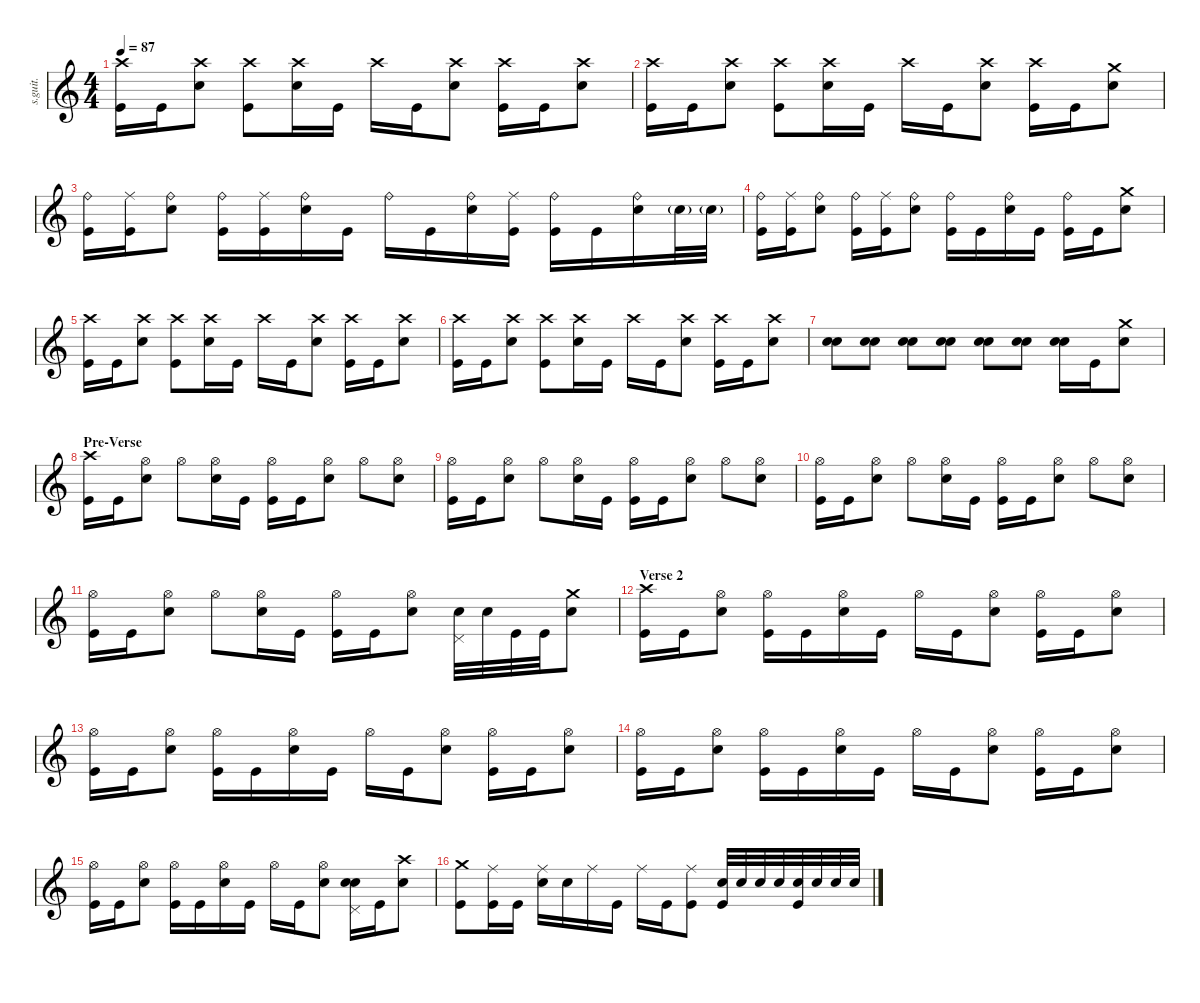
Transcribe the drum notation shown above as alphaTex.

\defaultSystemsLayout 4
\hideDynamics
\bracketExtendMode nobrackets
\track ("Taylor Hawkins (Drums)" "s.guit.") {instrument percussion}
\staff {score}
\articulation defaults
\ts (4 4)
\tempo 87
\clef g2
\ks c
("Crash high (hit)" "Kick (hit)").16{lyrics (0 "") lyrics (1 "") lyrics (2 "") lyrics (3 "") lyrics (4 "") dy f} "Kick (hit)".16{lyrics (0 "") lyrics (1 "") lyrics (2 "") lyrics (3 "") lyrics (4 "")} ("Crash high (hit)" "Snare (hit) 2").8{lyrics (0 "") lyrics (1 "") lyrics (2 "") lyrics (3 "") lyrics (4 "")} ("Crash high (hit)" "Kick (hit)").8{lyrics (0 "") lyrics (1 "") lyrics (2 "") lyrics (3 "") lyrics (4 "")} ("Crash high (hit)" "Snare (hit) 2").16{lyrics (0 "") lyrics (1 "") lyrics (2 "") lyrics (3 "") lyrics (4 "")} "Kick (hit)".16{lyrics (0 "") lyrics (1 "") lyrics (2 "") lyrics (3 "") lyrics (4 "")} "Crash high (hit)".16{lyrics (0 "") lyrics (1 "") lyrics (2 "") lyrics (3 "") lyrics (4 "")} "Kick (hit)".16{lyrics (0 "") lyrics (1 "") lyrics (2 "") lyrics (3 "") lyrics (4 "")} ("Crash high (hit)" "Snare (hit) 2").8{lyrics (0 "") lyrics (1 "") lyrics (2 "") lyrics (3 "") lyrics (4 "")} ("Crash high (hit)" "Kick (hit)").16{lyrics (0 "") lyrics (1 "") lyrics (2 "") lyrics (3 "") lyrics (4 "")} "Kick (hit)".16{lyrics (0 "") lyrics (1 "") lyrics (2 "") lyrics (3 "") lyrics (4 "")} ("Crash high (hit)" "Snare (hit) 2").8{lyrics (0 "") lyrics (1 "") lyrics (2 "") lyrics (3 "") lyrics (4 "")} |
("Crash high (hit)" "Kick (hit)").16{lyrics (0 "") lyrics (1 "") lyrics (2 "") lyrics (3 "") lyrics (4 "")} "Kick (hit)".16{lyrics (0 "") lyrics (1 "") lyrics (2 "") lyrics (3 "") lyrics (4 "")} ("Crash high (hit)" "Snare (hit) 2").8{lyrics (0 "") lyrics (1 "") lyrics (2 "") lyrics (3 "") lyrics (4 "")} ("Crash high (hit)" "Kick (hit)").8{lyrics (0 "") lyrics (1 "") lyrics (2 "") lyrics (3 "") lyrics (4 "")} ("Crash high (hit)" "Snare (hit) 2").16{lyrics (0 "") lyrics (1 "") lyrics (2 "") lyrics (3 "") lyrics (4 "")} "Kick (hit)".16{lyrics (0 "") lyrics (1 "") lyrics (2 "") lyrics (3 "") lyrics (4 "")} "Crash high (hit)".16{lyrics (0 "") lyrics (1 "") lyrics (2 "") lyrics (3 "") lyrics (4 "")} "Kick (hit)".16{lyrics (0 "") lyrics (1 "") lyrics (2 "") lyrics (3 "") lyrics (4 "")} ("Crash high (hit)" "Snare (hit) 2").8{lyrics (0 "") lyrics (1 "") lyrics (2 "") lyrics (3 "") lyrics (4 "")} ("Crash high (hit)" "Kick (hit)").16{lyrics (0 "") lyrics (1 "") lyrics (2 "") lyrics (3 "") lyrics (4 "")} "Kick (hit)".16{lyrics (0 "") lyrics (1 "") lyrics (2 "") lyrics (3 "") lyrics (4 "")} ("Crash medium (hit)" "Snare (hit) 2").8{lyrics (0 "") lyrics (1 "") lyrics (2 "") lyrics (3 "") lyrics (4 "")} |
("Ride (bell)" "Kick (hit)").16{lyrics (0 "") lyrics (1 "") lyrics (2 "") lyrics (3 "") lyrics (4 "")} ("Ride (middle)" "Kick (hit)").16{lyrics (0 "") lyrics (1 "") lyrics (2 "") lyrics (3 "") lyrics (4 "")} ("Ride (bell)" "Snare (hit) 2").8{lyrics (0 "") lyrics (1 "") lyrics (2 "") lyrics (3 "") lyrics (4 "")} ("Ride (bell)" "Kick (hit)").16{lyrics (0 "") lyrics (1 "") lyrics (2 "") lyrics (3 "") lyrics (4 "")} ("Ride (middle)" "Kick (hit)").16{lyrics (0 "") lyrics (1 "") lyrics (2 "") lyrics (3 "") lyrics (4 "")} ("Ride (bell)" "Snare (hit) 2").16{lyrics (0 "") lyrics (1 "") lyrics (2 "") lyrics (3 "") lyrics (4 "")} "Kick (hit)".16{lyrics (0 "") lyrics (1 "") lyrics (2 "") lyrics (3 "") lyrics (4 "")} "Ride (bell)".16{lyrics (0 "") lyrics (1 "") lyrics (2 "") lyrics (3 "") lyrics (4 "")} "Kick (hit)".16{lyrics (0 "") lyrics (1 "") lyrics (2 "") lyrics (3 "") lyrics (4 "")} ("Ride (bell)" "Snare (hit) 2").16{lyrics (0 "") lyrics (1 "") lyrics (2 "") lyrics (3 "") lyrics (4 "")} ("Ride (middle)" "Kick (hit)").16{lyrics (0 "") lyrics (1 "") lyrics (2 "") lyrics (3 "") lyrics (4 "")} ("Ride (bell)" "Kick (hit)").16{lyrics (0 "") lyrics (1 "") lyrics (2 "") lyrics (3 "") lyrics (4 "")} "Kick (hit)".16{lyrics (0 "") lyrics (1 "") lyrics (2 "") lyrics (3 "") lyrics (4 "")} ("Ride (bell)" "Snare (hit) 2").16{lyrics (0 "") lyrics (1 "") lyrics (2 "") lyrics (3 "") lyrics (4 "")} "Snare (hit) 2"{g}.32{lyrics (0 "") lyrics (1 "") lyrics (2 "") lyrics (3 "") lyrics (4 "") dy pp} "Snare (hit) 2"{g}.32{lyrics (0 "") lyrics (1 "") lyrics (2 "") lyrics (3 "") lyrics (4 "")} |
("Ride (bell)" "Kick (hit)").16{lyrics (0 "") lyrics (1 "") lyrics (2 "") lyrics (3 "") lyrics (4 "") dy f} ("Ride (middle)" "Kick (hit)").16{lyrics (0 "") lyrics (1 "") lyrics (2 "") lyrics (3 "") lyrics (4 "")} ("Ride (bell)" "Snare (hit) 2").8{lyrics (0 "") lyrics (1 "") lyrics (2 "") lyrics (3 "") lyrics (4 "")} ("Ride (bell)" "Kick (hit)").16{lyrics (0 "") lyrics (1 "") lyrics (2 "") lyrics (3 "") lyrics (4 "")} ("Ride (middle)" "Kick (hit)").16{lyrics (0 "") lyrics (1 "") lyrics (2 "") lyrics (3 "") lyrics (4 "")} ("Ride (bell)" "Snare (hit) 2").8{lyrics (0 "") lyrics (1 "") lyrics (2 "") lyrics (3 "") lyrics (4 "")} ("Ride (bell)" "Kick (hit)").16{lyrics (0 "") lyrics (1 "") lyrics (2 "") lyrics (3 "") lyrics (4 "")} "Kick (hit)".16{lyrics (0 "") lyrics (1 "") lyrics (2 "") lyrics (3 "") lyrics (4 "")} ("Ride (bell)" "Snare (hit) 2").16{lyrics (0 "") lyrics (1 "") lyrics (2 "") lyrics (3 "") lyrics (4 "")} "Kick (hit)".16{lyrics (0 "") lyrics (1 "") lyrics (2 "") lyrics (3 "") lyrics (4 "")} ("Ride (bell)" "Kick (hit)").16{lyrics (0 "") lyrics (1 "") lyrics (2 "") lyrics (3 "") lyrics (4 "")} "Kick (hit)".16{lyrics (0 "") lyrics (1 "") lyrics (2 "") lyrics (3 "") lyrics (4 "")} ("Crash medium (hit)" "Snare (hit) 2").8{lyrics (0 "") lyrics (1 "") lyrics (2 "") lyrics (3 "") lyrics (4 "")} |
("Crash high (hit)" "Kick (hit)").16{lyrics (0 "") lyrics (1 "") lyrics (2 "") lyrics (3 "") lyrics (4 "")} "Kick (hit)".16{lyrics (0 "") lyrics (1 "") lyrics (2 "") lyrics (3 "") lyrics (4 "")} ("Crash high (hit)" "Snare (hit) 2").8{lyrics (0 "") lyrics (1 "") lyrics (2 "") lyrics (3 "") lyrics (4 "")} ("Crash high (hit)" "Kick (hit)").8{lyrics (0 "") lyrics (1 "") lyrics (2 "") lyrics (3 "") lyrics (4 "")} ("Crash high (hit)" "Snare (hit) 2").16{lyrics (0 "") lyrics (1 "") lyrics (2 "") lyrics (3 "") lyrics (4 "")} "Kick (hit)".16{lyrics (0 "") lyrics (1 "") lyrics (2 "") lyrics (3 "") lyrics (4 "")} "Crash high (hit)".16{lyrics (0 "") lyrics (1 "") lyrics (2 "") lyrics (3 "") lyrics (4 "")} "Kick (hit)".16{lyrics (0 "") lyrics (1 "") lyrics (2 "") lyrics (3 "") lyrics (4 "")} ("Crash high (hit)" "Snare (hit) 2").8{lyrics (0 "") lyrics (1 "") lyrics (2 "") lyrics (3 "") lyrics (4 "")} ("Crash high (hit)" "Kick (hit)").16{lyrics (0 "") lyrics (1 "") lyrics (2 "") lyrics (3 "") lyrics (4 "")} "Kick (hit)".16{lyrics (0 "") lyrics (1 "") lyrics (2 "") lyrics (3 "") lyrics (4 "")} ("Crash high (hit)" "Snare (hit) 2").8{lyrics (0 "") lyrics (1 "") lyrics (2 "") lyrics (3 "") lyrics (4 "")} |
("Crash high (hit)" "Kick (hit)").16{lyrics (0 "") lyrics (1 "") lyrics (2 "") lyrics (3 "") lyrics (4 "")} "Kick (hit)".16{lyrics (0 "") lyrics (1 "") lyrics (2 "") lyrics (3 "") lyrics (4 "")} ("Crash high (hit)" "Snare (hit) 2").8{lyrics (0 "") lyrics (1 "") lyrics (2 "") lyrics (3 "") lyrics (4 "")} ("Crash high (hit)" "Kick (hit)").8{lyrics (0 "") lyrics (1 "") lyrics (2 "") lyrics (3 "") lyrics (4 "")} ("Crash high (hit)" "Snare (hit) 2").16{lyrics (0 "") lyrics (1 "") lyrics (2 "") lyrics (3 "") lyrics (4 "")} "Kick (hit)".16{lyrics (0 "") lyrics (1 "") lyrics (2 "") lyrics (3 "") lyrics (4 "")} "Crash high (hit)".16{lyrics (0 "") lyrics (1 "") lyrics (2 "") lyrics (3 "") lyrics (4 "")} "Kick (hit)".16{lyrics (0 "") lyrics (1 "") lyrics (2 "") lyrics (3 "") lyrics (4 "")} ("Crash high (hit)" "Snare (hit) 2").8{lyrics (0 "") lyrics (1 "") lyrics (2 "") lyrics (3 "") lyrics (4 "")} ("Crash high (hit)" "Kick (hit)").16{lyrics (0 "") lyrics (1 "") lyrics (2 "") lyrics (3 "") lyrics (4 "")} "Kick (hit)".16{lyrics (0 "") lyrics (1 "") lyrics (2 "") lyrics (3 "") lyrics (4 "")} ("Crash high (hit)" "Snare (hit) 2").8{lyrics (0 "") lyrics (1 "") lyrics (2 "") lyrics (3 "") lyrics (4 "")} |
("Snare (hit) 2" "Snare (hit) 2").8{lyrics (0 "") lyrics (1 "") lyrics (2 "") lyrics (3 "") lyrics (4 "")} ("Snare (hit) 2" "Snare (hit) 2").8{lyrics (0 "") lyrics (1 "") lyrics (2 "") lyrics (3 "") lyrics (4 "")} ("Snare (hit) 2" "Snare (hit) 2").8{lyrics (0 "") lyrics (1 "") lyrics (2 "") lyrics (3 "") lyrics (4 "")} ("Snare (hit) 2" "Snare (hit) 2").8{lyrics (0 "") lyrics (1 "") lyrics (2 "") lyrics (3 "") lyrics (4 "")} ("Snare (hit) 2" "Snare (hit) 2").8{lyrics (0 "") lyrics (1 "") lyrics (2 "") lyrics (3 "") lyrics (4 "")} ("Snare (hit) 2" "Snare (hit) 2").8{lyrics (0 "") lyrics (1 "") lyrics (2 "") lyrics (3 "") lyrics (4 "")} ("Snare (hit) 2" "Snare (hit) 2").16{lyrics (0 "") lyrics (1 "") lyrics (2 "") lyrics (3 "") lyrics (4 "")} "Kick (hit)".16{lyrics (0 "") lyrics (1 "") lyrics (2 "") lyrics (3 "") lyrics (4 "")} ("Crash medium (hit)" "Snare (hit) 2").8{lyrics (0 "") lyrics (1 "") lyrics (2 "") lyrics (3 "") lyrics (4 "")} |
\section ("" "Pre-Verse")
("Crash high (hit)" "Kick (hit)").16{lyrics (0 "") lyrics (1 "") lyrics (2 "") lyrics (3 "") lyrics (4 "")} "Kick (hit)".16{lyrics (0 "") lyrics (1 "") lyrics (2 "") lyrics (3 "") lyrics (4 "")} ("Hi-Hat (open)" "Snare (hit) 2").8{lyrics (0 "") lyrics (1 "") lyrics (2 "") lyrics (3 "") lyrics (4 "")} "Hi-Hat (open)".8{lyrics (0 "") lyrics (1 "") lyrics (2 "") lyrics (3 "") lyrics (4 "")} ("Hi-Hat (open)" "Snare (hit) 2").16{lyrics (0 "") lyrics (1 "") lyrics (2 "") lyrics (3 "") lyrics (4 "")} "Kick (hit)".16{lyrics (0 "") lyrics (1 "") lyrics (2 "") lyrics (3 "") lyrics (4 "")} ("Hi-Hat (open)" "Kick (hit)").16{lyrics (0 "") lyrics (1 "") lyrics (2 "") lyrics (3 "") lyrics (4 "")} "Kick (hit)".16{lyrics (0 "") lyrics (1 "") lyrics (2 "") lyrics (3 "") lyrics (4 "")} ("Hi-Hat (open)" "Snare (hit) 2").8{lyrics (0 "") lyrics (1 "") lyrics (2 "") lyrics (3 "") lyrics (4 "")} "Hi-Hat (open)".8{lyrics (0 "") lyrics (1 "") lyrics (2 "") lyrics (3 "") lyrics (4 "")} ("Hi-Hat (open)" "Snare (hit) 2").8{lyrics (0 "") lyrics (1 "") lyrics (2 "") lyrics (3 "") lyrics (4 "")} |
("Hi-Hat (open)" "Kick (hit)").16{lyrics (0 "") lyrics (1 "") lyrics (2 "") lyrics (3 "") lyrics (4 "")} "Kick (hit)".16{lyrics (0 "") lyrics (1 "") lyrics (2 "") lyrics (3 "") lyrics (4 "")} ("Hi-Hat (open)" "Snare (hit) 2").8{lyrics (0 "") lyrics (1 "") lyrics (2 "") lyrics (3 "") lyrics (4 "")} "Hi-Hat (open)".8{lyrics (0 "") lyrics (1 "") lyrics (2 "") lyrics (3 "") lyrics (4 "")} ("Hi-Hat (open)" "Snare (hit) 2").16{lyrics (0 "") lyrics (1 "") lyrics (2 "") lyrics (3 "") lyrics (4 "")} "Kick (hit)".16{lyrics (0 "") lyrics (1 "") lyrics (2 "") lyrics (3 "") lyrics (4 "")} ("Hi-Hat (open)" "Kick (hit)").16{lyrics (0 "") lyrics (1 "") lyrics (2 "") lyrics (3 "") lyrics (4 "")} "Kick (hit)".16{lyrics (0 "") lyrics (1 "") lyrics (2 "") lyrics (3 "") lyrics (4 "")} ("Hi-Hat (open)" "Snare (hit) 2").8{lyrics (0 "") lyrics (1 "") lyrics (2 "") lyrics (3 "") lyrics (4 "")} "Hi-Hat (open)".8{lyrics (0 "") lyrics (1 "") lyrics (2 "") lyrics (3 "") lyrics (4 "")} ("Hi-Hat (open)" "Snare (hit) 2").8{lyrics (0 "") lyrics (1 "") lyrics (2 "") lyrics (3 "") lyrics (4 "")} |
("Hi-Hat (open)" "Kick (hit)").16{lyrics (0 "") lyrics (1 "") lyrics (2 "") lyrics (3 "") lyrics (4 "")} "Kick (hit)".16{lyrics (0 "") lyrics (1 "") lyrics (2 "") lyrics (3 "") lyrics (4 "")} ("Hi-Hat (open)" "Snare (hit) 2").8{lyrics (0 "") lyrics (1 "") lyrics (2 "") lyrics (3 "") lyrics (4 "")} "Hi-Hat (open)".8{lyrics (0 "") lyrics (1 "") lyrics (2 "") lyrics (3 "") lyrics (4 "")} ("Hi-Hat (open)" "Snare (hit) 2").16{lyrics (0 "") lyrics (1 "") lyrics (2 "") lyrics (3 "") lyrics (4 "")} "Kick (hit)".16{lyrics (0 "") lyrics (1 "") lyrics (2 "") lyrics (3 "") lyrics (4 "")} ("Hi-Hat (open)" "Kick (hit)").16{lyrics (0 "") lyrics (1 "") lyrics (2 "") lyrics (3 "") lyrics (4 "")} "Kick (hit)".16{lyrics (0 "") lyrics (1 "") lyrics (2 "") lyrics (3 "") lyrics (4 "")} ("Hi-Hat (open)" "Snare (hit) 2").8{lyrics (0 "") lyrics (1 "") lyrics (2 "") lyrics (3 "") lyrics (4 "")} "Hi-Hat (open)".8{lyrics (0 "") lyrics (1 "") lyrics (2 "") lyrics (3 "") lyrics (4 "")} ("Hi-Hat (open)" "Snare (hit) 2").8{lyrics (0 "") lyrics (1 "") lyrics (2 "") lyrics (3 "") lyrics (4 "")} |
("Hi-Hat (open)" "Kick (hit)").16{lyrics (0 "") lyrics (1 "") lyrics (2 "") lyrics (3 "") lyrics (4 "")} "Kick (hit)".16{lyrics (0 "") lyrics (1 "") lyrics (2 "") lyrics (3 "") lyrics (4 "")} ("Hi-Hat (open)" "Snare (hit) 2").8{lyrics (0 "") lyrics (1 "") lyrics (2 "") lyrics (3 "") lyrics (4 "")} "Hi-Hat (open)".8{lyrics (0 "") lyrics (1 "") lyrics (2 "") lyrics (3 "") lyrics (4 "")} ("Hi-Hat (open)" "Snare (hit) 2").16{lyrics (0 "") lyrics (1 "") lyrics (2 "") lyrics (3 "") lyrics (4 "")} "Kick (hit)".16{lyrics (0 "") lyrics (1 "") lyrics (2 "") lyrics (3 "") lyrics (4 "")} ("Hi-Hat (open)" "Kick (hit)").16{lyrics (0 "") lyrics (1 "") lyrics (2 "") lyrics (3 "") lyrics (4 "")} "Kick (hit)".16{lyrics (0 "") lyrics (1 "") lyrics (2 "") lyrics (3 "") lyrics (4 "")} ("Hi-Hat (open)" "Snare (hit) 2").8{lyrics (0 "") lyrics (1 "") lyrics (2 "") lyrics (3 "") lyrics (4 "")} ("Snare (hit) 2" "Pedal Hi-Hat (hit)").32{lyrics (0 "") lyrics (1 "") lyrics (2 "") lyrics (3 "") lyrics (4 "")} "Snare (hit) 2".32{lyrics (0 "") lyrics (1 "") lyrics (2 "") lyrics (3 "") lyrics (4 "")} "Kick (hit)".32{lyrics (0 "") lyrics (1 "") lyrics (2 "") lyrics (3 "") lyrics (4 "")} "Kick (hit)".32{lyrics (0 "") lyrics (1 "") lyrics (2 "") lyrics (3 "") lyrics (4 "")} ("Crash medium (hit)" "Snare (hit) 2").8{lyrics (0 "") lyrics (1 "") lyrics (2 "") lyrics (3 "") lyrics (4 "")} |
\section ("" "Verse 2")
("Crash high (hit)" "Kick (hit)").16{lyrics (0 "") lyrics (1 "") lyrics (2 "") lyrics (3 "") lyrics (4 "")} "Kick (hit)".16{lyrics (0 "") lyrics (1 "") lyrics (2 "") lyrics (3 "") lyrics (4 "")} ("Hi-Hat (open)" "Snare (hit) 2").8{lyrics (0 "") lyrics (1 "") lyrics (2 "") lyrics (3 "") lyrics (4 "")} ("Hi-Hat (open)" "Kick (hit)").16{lyrics (0 "") lyrics (1 "") lyrics (2 "") lyrics (3 "") lyrics (4 "")} "Kick (hit)".16{lyrics (0 "") lyrics (1 "") lyrics (2 "") lyrics (3 "") lyrics (4 "")} ("Hi-Hat (open)" "Snare (hit) 2").16{lyrics (0 "") lyrics (1 "") lyrics (2 "") lyrics (3 "") lyrics (4 "")} "Kick (hit)".16{lyrics (0 "") lyrics (1 "") lyrics (2 "") lyrics (3 "") lyrics (4 "")} "Hi-Hat (open)".16{lyrics (0 "") lyrics (1 "") lyrics (2 "") lyrics (3 "") lyrics (4 "")} "Kick (hit)".16{lyrics (0 "") lyrics (1 "") lyrics (2 "") lyrics (3 "") lyrics (4 "")} ("Hi-Hat (open)" "Snare (hit) 2").8{lyrics (0 "") lyrics (1 "") lyrics (2 "") lyrics (3 "") lyrics (4 "")} ("Hi-Hat (open)" "Kick (hit)").16{lyrics (0 "") lyrics (1 "") lyrics (2 "") lyrics (3 "") lyrics (4 "")} "Kick (hit)".16{lyrics (0 "") lyrics (1 "") lyrics (2 "") lyrics (3 "") lyrics (4 "")} ("Hi-Hat (open)" "Snare (hit) 2").8{lyrics (0 "") lyrics (1 "") lyrics (2 "") lyrics (3 "") lyrics (4 "")} |
("Hi-Hat (open)" "Kick (hit)").16{lyrics (0 "") lyrics (1 "") lyrics (2 "") lyrics (3 "") lyrics (4 "")} "Kick (hit)".16{lyrics (0 "") lyrics (1 "") lyrics (2 "") lyrics (3 "") lyrics (4 "")} ("Hi-Hat (open)" "Snare (hit) 2").8{lyrics (0 "") lyrics (1 "") lyrics (2 "") lyrics (3 "") lyrics (4 "")} ("Hi-Hat (open)" "Kick (hit)").16{lyrics (0 "") lyrics (1 "") lyrics (2 "") lyrics (3 "") lyrics (4 "")} "Kick (hit)".16{lyrics (0 "") lyrics (1 "") lyrics (2 "") lyrics (3 "") lyrics (4 "")} ("Hi-Hat (open)" "Snare (hit) 2").16{lyrics (0 "") lyrics (1 "") lyrics (2 "") lyrics (3 "") lyrics (4 "")} "Kick (hit)".16{lyrics (0 "") lyrics (1 "") lyrics (2 "") lyrics (3 "") lyrics (4 "")} "Hi-Hat (open)".16{lyrics (0 "") lyrics (1 "") lyrics (2 "") lyrics (3 "") lyrics (4 "")} "Kick (hit)".16{lyrics (0 "") lyrics (1 "") lyrics (2 "") lyrics (3 "") lyrics (4 "")} ("Hi-Hat (open)" "Snare (hit) 2").8{lyrics (0 "") lyrics (1 "") lyrics (2 "") lyrics (3 "") lyrics (4 "")} ("Hi-Hat (open)" "Kick (hit)").16{lyrics (0 "") lyrics (1 "") lyrics (2 "") lyrics (3 "") lyrics (4 "")} "Kick (hit)".16{lyrics (0 "") lyrics (1 "") lyrics (2 "") lyrics (3 "") lyrics (4 "")} ("Hi-Hat (open)" "Snare (hit) 2").8{lyrics (0 "") lyrics (1 "") lyrics (2 "") lyrics (3 "") lyrics (4 "")} |
("Hi-Hat (open)" "Kick (hit)").16{lyrics (0 "") lyrics (1 "") lyrics (2 "") lyrics (3 "") lyrics (4 "")} "Kick (hit)".16{lyrics (0 "") lyrics (1 "") lyrics (2 "") lyrics (3 "") lyrics (4 "")} ("Hi-Hat (open)" "Snare (hit) 2").8{lyrics (0 "") lyrics (1 "") lyrics (2 "") lyrics (3 "") lyrics (4 "")} ("Hi-Hat (open)" "Kick (hit)").16{lyrics (0 "") lyrics (1 "") lyrics (2 "") lyrics (3 "") lyrics (4 "")} "Kick (hit)".16{lyrics (0 "") lyrics (1 "") lyrics (2 "") lyrics (3 "") lyrics (4 "")} ("Hi-Hat (open)" "Snare (hit) 2").16{lyrics (0 "") lyrics (1 "") lyrics (2 "") lyrics (3 "") lyrics (4 "")} "Kick (hit)".16{lyrics (0 "") lyrics (1 "") lyrics (2 "") lyrics (3 "") lyrics (4 "")} "Hi-Hat (open)".16{lyrics (0 "") lyrics (1 "") lyrics (2 "") lyrics (3 "") lyrics (4 "")} "Kick (hit)".16{lyrics (0 "") lyrics (1 "") lyrics (2 "") lyrics (3 "") lyrics (4 "")} ("Hi-Hat (open)" "Snare (hit) 2").8{lyrics (0 "") lyrics (1 "") lyrics (2 "") lyrics (3 "") lyrics (4 "")} ("Hi-Hat (open)" "Kick (hit)").16{lyrics (0 "") lyrics (1 "") lyrics (2 "") lyrics (3 "") lyrics (4 "")} "Kick (hit)".16{lyrics (0 "") lyrics (1 "") lyrics (2 "") lyrics (3 "") lyrics (4 "")} ("Hi-Hat (open)" "Snare (hit) 2").8{lyrics (0 "") lyrics (1 "") lyrics (2 "") lyrics (3 "") lyrics (4 "")} |
("Hi-Hat (open)" "Kick (hit)").16{lyrics (0 "") lyrics (1 "") lyrics (2 "") lyrics (3 "") lyrics (4 "")} "Kick (hit)".16{lyrics (0 "") lyrics (1 "") lyrics (2 "") lyrics (3 "") lyrics (4 "")} ("Hi-Hat (open)" "Snare (hit) 2").8{lyrics (0 "") lyrics (1 "") lyrics (2 "") lyrics (3 "") lyrics (4 "")} ("Hi-Hat (open)" "Kick (hit)").16{lyrics (0 "") lyrics (1 "") lyrics (2 "") lyrics (3 "") lyrics (4 "")} "Kick (hit)".16{lyrics (0 "") lyrics (1 "") lyrics (2 "") lyrics (3 "") lyrics (4 "")} ("Hi-Hat (open)" "Snare (hit) 2").16{lyrics (0 "") lyrics (1 "") lyrics (2 "") lyrics (3 "") lyrics (4 "")} "Kick (hit)".16{lyrics (0 "") lyrics (1 "") lyrics (2 "") lyrics (3 "") lyrics (4 "")} "Hi-Hat (open)".16{lyrics (0 "") lyrics (1 "") lyrics (2 "") lyrics (3 "") lyrics (4 "")} "Kick (hit)".16{lyrics (0 "") lyrics (1 "") lyrics (2 "") lyrics (3 "") lyrics (4 "")} ("Hi-Hat (open)" "Snare (hit) 2").8{lyrics (0 "") lyrics (1 "") lyrics (2 "") lyrics (3 "") lyrics (4 "")} ("Snare (hit) 2" "Snare (hit) 2" "Pedal Hi-Hat (hit)").16{lyrics (0 "") lyrics (1 "") lyrics (2 "") lyrics (3 "") lyrics (4 "")} "Kick (hit)".16{lyrics (0 "") lyrics (1 "") lyrics (2 "") lyrics (3 "") lyrics (4 "")} ("Crash high (hit)" "Snare (hit) 2").8{lyrics (0 "") lyrics (1 "") lyrics (2 "") lyrics (3 "") lyrics (4 "")} |
("Crash medium (hit)" "Kick (hit)").8{lyrics (0 "") lyrics (1 "") lyrics (2 "") lyrics (3 "") lyrics (4 "")} ("Ride (middle)" "Kick (hit)").16{lyrics (0 "") lyrics (1 "") lyrics (2 "") lyrics (3 "") lyrics (4 "")} "Kick (hit)".16{lyrics (0 "") lyrics (1 "") lyrics (2 "") lyrics (3 "") lyrics (4 "")} ("Ride (middle)" "Snare (hit) 2").16{lyrics (0 "") lyrics (1 "") lyrics (2 "") lyrics (3 "") lyrics (4 "")} "Snare (hit) 2".16{lyrics (0 "") lyrics (1 "") lyrics (2 "") lyrics (3 "") lyrics (4 "")} "Ride (middle)".16{lyrics (0 "") lyrics (1 "") lyrics (2 "") lyrics (3 "") lyrics (4 "")} "Kick (hit)".16{lyrics (0 "") lyrics (1 "") lyrics (2 "") lyrics (3 "") lyrics (4 "")} "Ride (middle)".16{lyrics (0 "") lyrics (1 "") lyrics (2 "") lyrics (3 "") lyrics (4 "")} "Kick (hit)".16{lyrics (0 "") lyrics (1 "") lyrics (2 "") lyrics (3 "") lyrics (4 "")} ("Ride (middle)" "Kick (hit)").8{lyrics (0 "") lyrics (1 "") lyrics (2 "") lyrics (3 "") lyrics (4 "")} ("Snare (hit) 2" "Kick (hit)").32{lyrics (0 "") lyrics (1 "") lyrics (2 "") lyrics (3 "") lyrics (4 "")} "Snare (hit) 2".32{lyrics (0 "") lyrics (1 "") lyrics (2 "") lyrics (3 "") lyrics (4 "")} "Snare (hit) 2".32{lyrics (0 "") lyrics (1 "") lyrics (2 "") lyrics (3 "") lyrics (4 "")} "Snare (hit) 2".32{lyrics (0 "") lyrics (1 "") lyrics (2 "") lyrics (3 "") lyrics (4 "")} ("Snare (hit) 2" "Kick (hit)").32{lyrics (0 "") lyrics (1 "") lyrics (2 "") lyrics (3 "") lyrics (4 "")} "Snare (hit) 2".32{lyrics (0 "") lyrics (1 "") lyrics (2 "") lyrics (3 "") lyrics (4 "")} "Snare (hit) 2".32{lyrics (0 "") lyrics (1 "") lyrics (2 "") lyrics (3 "") lyrics (4 "")} "Snare (hit) 2".32{lyrics (0 "") lyrics (1 "") lyrics (2 "") lyrics (3 "") lyrics (4 "")}
